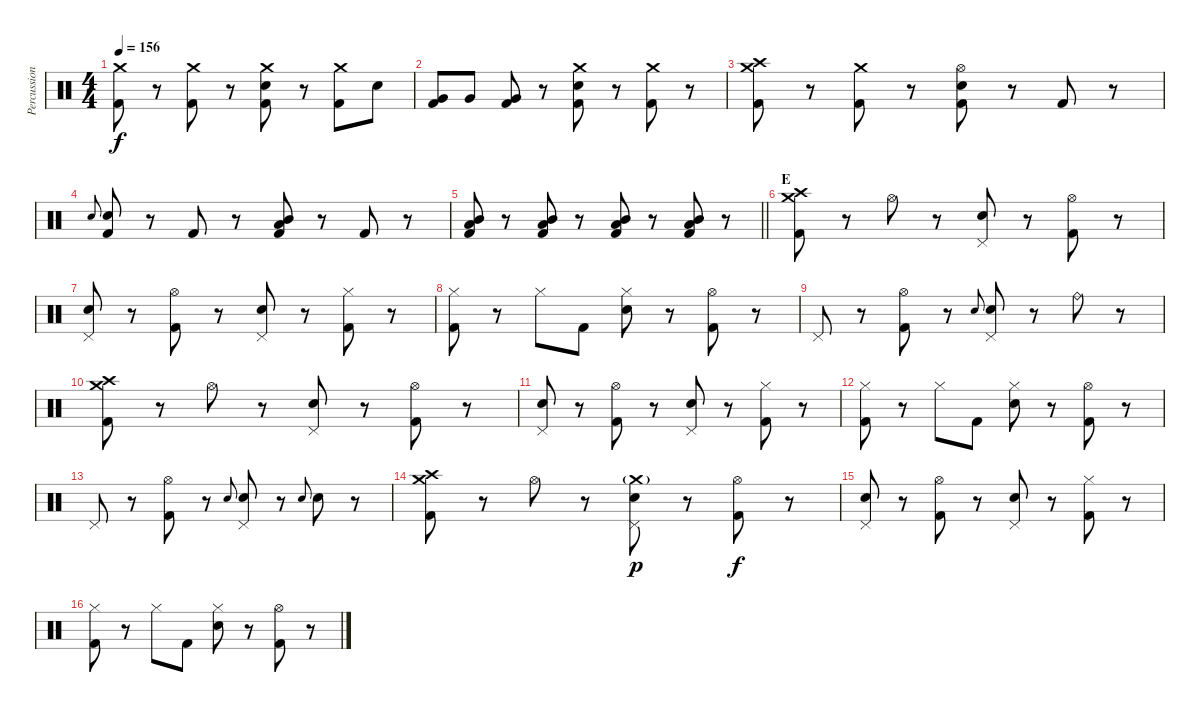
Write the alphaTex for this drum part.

\track ("Percussion" "Percussion") {instrument percussion}
\staff {score}
\articulation defaults
\ts (4 4)
\tempo 156
\clef neutral
\ks c
("Crash medium (hit)" "Kick (hit) 2").8{dy f} r.8 ("Crash medium (hit)" "Kick (hit) 2").8 r.8 ("Crash medium (hit)" "Snare (hit) 2" "Kick (hit) 2").8 r.8 ("Crash medium (hit)" "Kick (hit) 2").8 "Snare (hit) 2".8 |
("Very Low Tom (hit)" "Kick (hit) 2").8 "Very Low Tom (hit)".8 ("Very Low Tom (hit)" "Kick (hit) 2").8 r.8 ("Crash medium (hit)" "Snare (hit) 2" "Kick (hit) 2").8 r.8 ("Crash medium (hit)" "Kick (hit) 2").8 r.8 |
("Crash high (hit)" "Crash medium (hit)" "Kick (hit) 2").8 r.8 ("Crash medium (hit)" "Kick (hit) 2").8 r.8 ("Hi-Hat (open)" "Snare (hit) 2" "Kick (hit) 2").8 r.8 "Kick (hit) 2".8 r.8 |
"Snare (hit) 2".8{gr onbeat} ("Snare (hit) 2" "Kick (hit) 2").8 r.8 "Kick (hit) 2".8 r.8 ("Mid Tom (hit)" "Low Tom (hit)" "Kick (hit) 2").8 r.8 "Kick (hit) 2".8 r.8 |
\barLineRight lightlight
("Mid Tom (hit)" "Low Tom (hit)" "Kick (hit) 2").8 r.8 ("Mid Tom (hit)" "Low Tom (hit)" "Kick (hit) 2").8 r.8 ("Mid Tom (hit)" "Low Tom (hit)" "Kick (hit) 2").8 r.8 ("Mid Tom (hit)" "Low Tom (hit)" "Kick (hit) 2").8 r.8 |
\section ("" "E")
("Crash high (hit)" "Crash medium (hit)" "Kick (hit) 2").8 r.8 "Hi-Hat (open)".8 r.8 ("Pedal Hi-Hat (hit)" "Snare (hit) 2").8 r.8 ("Hi-Hat (open)" "Kick (hit) 2").8 r.8 |
("Pedal Hi-Hat (hit)" "Snare (hit) 2").8 r.8 ("Hi-Hat (open)" "Kick (hit) 2").8 r.8 ("Pedal Hi-Hat (hit)" "Snare (hit) 2").8 r.8 ("Hi-Hat (closed)" "Kick (hit) 2").8 r.8 |
("Hi-Hat (closed)" "Kick (hit) 2").8 r.8 "Hi-Hat (closed)".8 "Kick (hit) 2".8 ("Hi-Hat (closed)" "Snare (hit) 2").8 r.8 ("Hi-Hat (open)" "Kick (hit) 2").8 r.8 |
"Pedal Hi-Hat (hit)".8 r.8 ("Hi-Hat (open)" "Kick (hit) 2").8 r.8 "Snare (hit) 2".8{gr onbeat} ("Pedal Hi-Hat (hit)" "Snare (hit) 2").8 r.8 "Ride (bell)".8 r.8 |
("Crash high (hit)" "Crash medium (hit)" "Kick (hit) 2").8 r.8 "Hi-Hat (open)".8 r.8 ("Pedal Hi-Hat (hit)" "Snare (hit) 2").8 r.8 ("Hi-Hat (open)" "Kick (hit) 2").8 r.8 |
("Pedal Hi-Hat (hit)" "Snare (hit) 2").8 r.8 ("Hi-Hat (open)" "Kick (hit) 2").8 r.8 ("Pedal Hi-Hat (hit)" "Snare (hit) 2").8 r.8 ("Hi-Hat (closed)" "Kick (hit) 2").8 r.8 |
("Hi-Hat (closed)" "Kick (hit) 2").8 r.8 "Hi-Hat (closed)".8 "Kick (hit) 2".8 ("Hi-Hat (closed)" "Snare (hit) 2").8 r.8 ("Hi-Hat (open)" "Kick (hit) 2").8 r.8 |
"Pedal Hi-Hat (hit)".8 r.8 ("Hi-Hat (open)" "Kick (hit) 2").8 r.8 "Snare (hit) 2".8{gr onbeat} ("Pedal Hi-Hat (hit)" "Snare (hit) 2").8 r.8 "Snare (hit) 2".8{gr onbeat} "Snare (hit) 2".8 r.8 |
("Crash high (hit)" "Crash medium (hit)" "Kick (hit) 2").8 r.8 "Hi-Hat (open)".8 r.8 ("Crash medium (hit)"{g} "Pedal Hi-Hat (hit)" "Snare (hit) 2").8{dy p} r.8 ("Hi-Hat (open)" "Kick (hit) 2").8{dy f} r.8 |
("Pedal Hi-Hat (hit)" "Snare (hit) 2").8 r.8 ("Hi-Hat (open)" "Kick (hit) 2").8 r.8 ("Pedal Hi-Hat (hit)" "Snare (hit) 2").8 r.8 ("Hi-Hat (closed)" "Kick (hit) 2").8 r.8 |
("Hi-Hat (closed)" "Kick (hit) 2").8 r.8 "Hi-Hat (closed)".8 "Kick (hit) 2".8 ("Hi-Hat (closed)" "Snare (hit) 2").8 r.8 ("Hi-Hat (open)" "Kick (hit) 2").8 r.8
